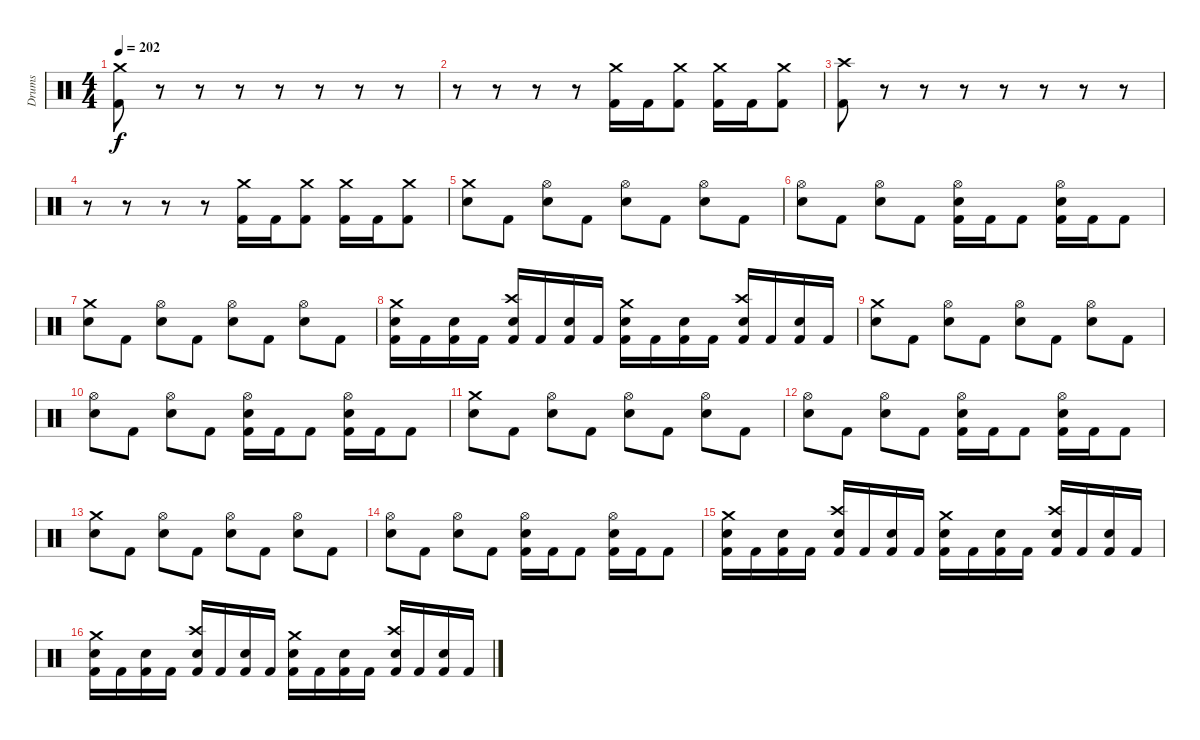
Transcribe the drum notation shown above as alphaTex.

\track ("Drums" "Drums") {instrument percussion}
\staff {score}
\articulation defaults
\ts (4 4)
\tempo 202
\clef neutral
\ks c
("Crash medium (hit)" "Kick (hit) 2").8{dy f} r.8 r.8 r.8 r.8 r.8 r.8 r.8 |
r.8 r.8 r.8 r.8 ("Crash medium (hit)" "Kick (hit) 2").16 "Kick (hit) 2".16 ("Crash medium (hit)" "Kick (hit) 2").8 ("Crash medium (hit)" "Kick (hit) 2").16 "Kick (hit) 2".16 ("Crash medium (hit)" "Kick (hit) 2").8 |
("Crash high (hit)" "Kick (hit) 2").8 r.8 r.8 r.8 r.8 r.8 r.8 r.8 |
r.8 r.8 r.8 r.8 ("Crash medium (hit)" "Kick (hit) 2").16 "Kick (hit) 2".16 ("Crash medium (hit)" "Kick (hit) 2").8 ("Crash medium (hit)" "Kick (hit) 2").16 "Kick (hit) 2".16 ("Crash medium (hit)" "Kick (hit) 2").8 |
("Crash medium (hit)" "Electric Snare (hit)").8 "Kick (hit) 2".8 ("Hi-Hat (open)" "Electric Snare (hit)").8 "Kick (hit) 2".8 ("Hi-Hat (open)" "Electric Snare (hit)").8 "Kick (hit) 2".8 ("Hi-Hat (open)" "Electric Snare (hit)").8 "Kick (hit) 2".8 |
("Hi-Hat (open)" "Electric Snare (hit)").8 "Kick (hit) 2".8 ("Hi-Hat (open)" "Electric Snare (hit)").8 "Kick (hit) 2".8 ("Hi-Hat (open)" "Electric Snare (hit)" "Kick (hit) 2").16 "Kick (hit) 2".16 "Kick (hit) 2".8 ("Hi-Hat (open)" "Electric Snare (hit)" "Kick (hit) 2").16 "Kick (hit) 2".16 "Kick (hit) 2".8 |
("Crash medium (hit)" "Electric Snare (hit)").8 "Kick (hit) 2".8 ("Hi-Hat (open)" "Electric Snare (hit)").8 "Kick (hit) 2".8 ("Hi-Hat (open)" "Electric Snare (hit)").8 "Kick (hit) 2".8 ("Hi-Hat (open)" "Electric Snare (hit)").8 "Kick (hit) 2".8 |
("Crash medium (hit)" "Electric Snare (hit)" "Kick (hit) 2").16 "Kick (hit) 2".16 ("Electric Snare (hit)" "Kick (hit) 2").16 "Kick (hit) 2".16 ("Crash high (hit)" "Electric Snare (hit)" "Kick (hit) 2").16 "Kick (hit) 2".16 ("Electric Snare (hit)" "Kick (hit) 2").16 "Kick (hit) 2".16 ("Crash medium (hit)" "Electric Snare (hit)" "Kick (hit) 2").16 "Kick (hit) 2".16 ("Electric Snare (hit)" "Kick (hit) 2").16 "Kick (hit) 2".16 ("Crash high (hit)" "Electric Snare (hit)" "Kick (hit) 2").16 "Kick (hit) 2".16 ("Electric Snare (hit)" "Kick (hit) 2").16 "Kick (hit) 2".16 |
("Crash medium (hit)" "Electric Snare (hit)").8 "Kick (hit) 2".8 ("Hi-Hat (open)" "Electric Snare (hit)").8 "Kick (hit) 2".8 ("Hi-Hat (open)" "Electric Snare (hit)").8 "Kick (hit) 2".8 ("Hi-Hat (open)" "Electric Snare (hit)").8 "Kick (hit) 2".8 |
("Hi-Hat (open)" "Electric Snare (hit)").8 "Kick (hit) 2".8 ("Hi-Hat (open)" "Electric Snare (hit)").8 "Kick (hit) 2".8 ("Hi-Hat (open)" "Electric Snare (hit)" "Kick (hit) 2").16 "Kick (hit) 2".16 "Kick (hit) 2".8 ("Hi-Hat (open)" "Electric Snare (hit)" "Kick (hit) 2").16 "Kick (hit) 2".16 "Kick (hit) 2".8 |
("Crash medium (hit)" "Electric Snare (hit)").8 "Kick (hit) 2".8 ("Hi-Hat (open)" "Electric Snare (hit)").8 "Kick (hit) 2".8 ("Hi-Hat (open)" "Electric Snare (hit)").8 "Kick (hit) 2".8 ("Hi-Hat (open)" "Electric Snare (hit)").8 "Kick (hit) 2".8 |
("Hi-Hat (open)" "Electric Snare (hit)").8 "Kick (hit) 2".8 ("Hi-Hat (open)" "Electric Snare (hit)").8 "Kick (hit) 2".8 ("Hi-Hat (open)" "Electric Snare (hit)" "Kick (hit) 2").16 "Kick (hit) 2".16 "Kick (hit) 2".8 ("Hi-Hat (open)" "Electric Snare (hit)" "Kick (hit) 2").16 "Kick (hit) 2".16 "Kick (hit) 2".8 |
("Crash medium (hit)" "Electric Snare (hit)").8 "Kick (hit) 2".8 ("Hi-Hat (open)" "Electric Snare (hit)").8 "Kick (hit) 2".8 ("Hi-Hat (open)" "Electric Snare (hit)").8 "Kick (hit) 2".8 ("Hi-Hat (open)" "Electric Snare (hit)").8 "Kick (hit) 2".8 |
("Hi-Hat (open)" "Electric Snare (hit)").8 "Kick (hit) 2".8 ("Hi-Hat (open)" "Electric Snare (hit)").8 "Kick (hit) 2".8 ("Hi-Hat (open)" "Electric Snare (hit)" "Kick (hit) 2").16 "Kick (hit) 2".16 "Kick (hit) 2".8 ("Hi-Hat (open)" "Electric Snare (hit)" "Kick (hit) 2").16 "Kick (hit) 2".16 "Kick (hit) 2".8 |
("Crash medium (hit)" "Electric Snare (hit)" "Kick (hit) 2").16 "Kick (hit) 2".16 ("Electric Snare (hit)" "Kick (hit) 2").16 "Kick (hit) 2".16 ("Crash high (hit)" "Electric Snare (hit)" "Kick (hit) 2").16 "Kick (hit) 2".16 ("Electric Snare (hit)" "Kick (hit) 2").16 "Kick (hit) 2".16 ("Crash medium (hit)" "Electric Snare (hit)" "Kick (hit) 2").16 "Kick (hit) 2".16 ("Electric Snare (hit)" "Kick (hit) 2").16 "Kick (hit) 2".16 ("Crash high (hit)" "Electric Snare (hit)" "Kick (hit) 2").16 "Kick (hit) 2".16 ("Electric Snare (hit)" "Kick (hit) 2").16 "Kick (hit) 2".16 |
("Crash medium (hit)" "Electric Snare (hit)" "Kick (hit) 2").16 "Kick (hit) 2".16 ("Electric Snare (hit)" "Kick (hit) 2").16 "Kick (hit) 2".16 ("Crash high (hit)" "Electric Snare (hit)" "Kick (hit) 2").16 "Kick (hit) 2".16 ("Electric Snare (hit)" "Kick (hit) 2").16 "Kick (hit) 2".16 ("Crash medium (hit)" "Electric Snare (hit)" "Kick (hit) 2").16 "Kick (hit) 2".16 ("Electric Snare (hit)" "Kick (hit) 2").16 "Kick (hit) 2".16 ("Crash high (hit)" "Electric Snare (hit)" "Kick (hit) 2").16 "Kick (hit) 2".16 ("Electric Snare (hit)" "Kick (hit) 2").16 "Kick (hit) 2".16
